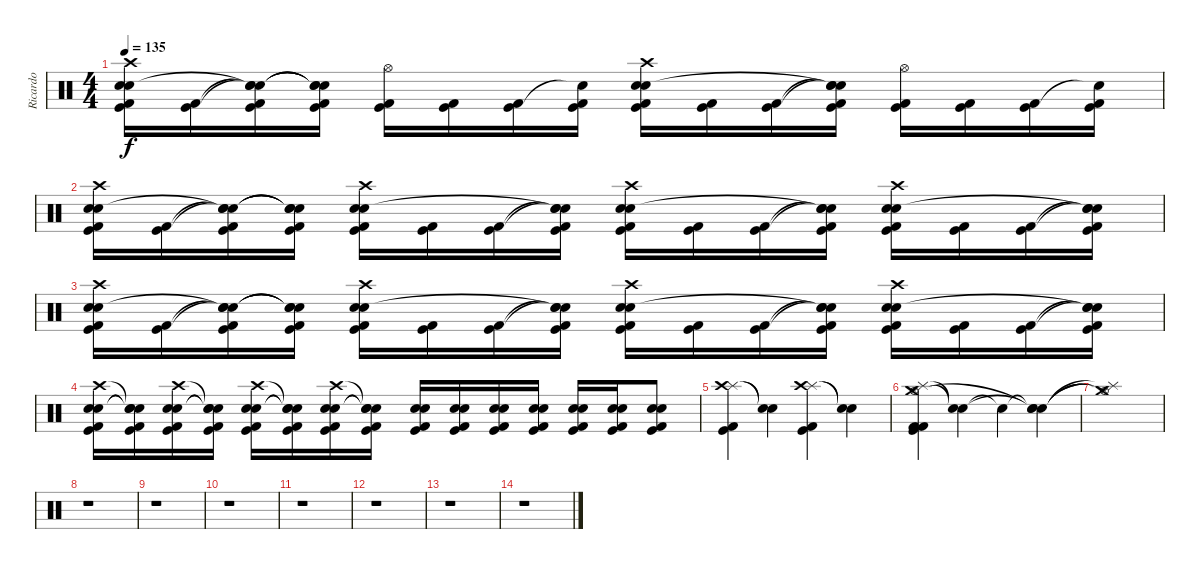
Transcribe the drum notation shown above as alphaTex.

\track ("Ricardo" "Ricardo") {instrument percussion}
\staff {score}
\articulation defaults
\ts (4 4)
\tempo 135
\clef neutral
\ks c
("Crash high (hit)" "Electric Snare (hit)" "Snare (hit) 2" "Kick (hit)" "Kick (hit) 2").16{dy f} ("Kick (hit)" "Kick (hit) 2").16 ("Snare (hit)"{t} "Snare (hit)"{t} "Snare (hit)"{t} "Kick (hit)" "Kick (hit) 2").16 ("Snare (hit)"{t} "Snare (hit)"{t} "Snare (hit)"{t} "Kick (hit)" "Kick (hit) 2").16 ("Hi-Hat (open)" "Kick (hit)" "Kick (hit) 2").16 ("Kick (hit)" "Kick (hit) 2").16 ("Kick (hit)" "Kick (hit) 2").16 ("Snare (hit)"{t} "Kick (hit)" "Kick (hit) 2").16 ("Crash high (hit)" "Electric Snare (hit)" "Snare (hit) 2" "Kick (hit)" "Kick (hit) 2").16 ("Kick (hit)" "Kick (hit) 2").16 ("Kick (hit)" "Kick (hit) 2").16 ("Snare (hit)"{t} "Snare (hit)"{t} "Snare (hit)"{t} "Kick (hit)" "Kick (hit) 2").16 ("Hi-Hat (open)" "Kick (hit)" "Kick (hit) 2").16 ("Kick (hit)" "Kick (hit) 2").16 ("Kick (hit)" "Kick (hit) 2").16 ("Snare (hit)"{t} "Kick (hit)" "Kick (hit) 2").16 |
("Crash high (hit)" "Electric Snare (hit)" "Snare (hit) 2" "Kick (hit)" "Kick (hit) 2").16 ("Kick (hit)" "Kick (hit) 2").16 ("Snare (hit)"{t} "Snare (hit)"{t} "Snare (hit)"{t} "Kick (hit)" "Kick (hit) 2").16 ("Snare (hit)"{t} "Snare (hit)"{t} "Snare (hit)"{t} "Kick (hit)" "Kick (hit) 2").16 ("Crash high (hit)" "Electric Snare (hit)" "Snare (hit) 2" "Kick (hit)" "Kick (hit) 2").16 ("Kick (hit)" "Kick (hit) 2").16 ("Kick (hit)" "Kick (hit) 2").16 ("Snare (hit)"{t} "Snare (hit)"{t} "Snare (hit)"{t} "Kick (hit)" "Kick (hit) 2").16 ("Crash high (hit)" "Electric Snare (hit)" "Snare (hit) 2" "Kick (hit)" "Kick (hit) 2").16 ("Kick (hit)" "Kick (hit) 2").16 ("Kick (hit)" "Kick (hit) 2").16 ("Snare (hit)"{t} "Snare (hit)"{t} "Snare (hit)"{t} "Kick (hit)" "Kick (hit) 2").16 ("Crash high (hit)" "Electric Snare (hit)" "Snare (hit) 2" "Kick (hit)" "Kick (hit) 2").16 ("Kick (hit)" "Kick (hit) 2").16 ("Kick (hit)" "Kick (hit) 2").16 ("Snare (hit)"{t} "Snare (hit)"{t} "Snare (hit)"{t} "Kick (hit)" "Kick (hit) 2").16 |
("Crash high (hit)" "Electric Snare (hit)" "Snare (hit) 2" "Kick (hit)" "Kick (hit) 2").16 ("Kick (hit)" "Kick (hit) 2").16 ("Snare (hit)"{t} "Snare (hit)"{t} "Snare (hit)"{t} "Kick (hit)" "Kick (hit) 2").16 ("Snare (hit)"{t} "Snare (hit)"{t} "Snare (hit)"{t} "Kick (hit)" "Kick (hit) 2").16 ("Crash high (hit)" "Electric Snare (hit)" "Snare (hit) 2" "Kick (hit)" "Kick (hit) 2").16 ("Kick (hit)" "Kick (hit) 2").16 ("Kick (hit)" "Kick (hit) 2").16 ("Snare (hit)"{t} "Snare (hit)"{t} "Snare (hit)"{t} "Kick (hit)" "Kick (hit) 2").16 ("Crash high (hit)" "Electric Snare (hit)" "Snare (hit) 2" "Kick (hit)" "Kick (hit) 2").16 ("Kick (hit)" "Kick (hit) 2").16 ("Kick (hit)" "Kick (hit) 2").16 ("Snare (hit)"{t} "Snare (hit)"{t} "Snare (hit)"{t} "Kick (hit)" "Kick (hit) 2").16 ("Crash high (hit)" "Electric Snare (hit)" "Snare (hit) 2" "Kick (hit)" "Kick (hit) 2").16 ("Kick (hit)" "Kick (hit) 2").16 ("Kick (hit)" "Kick (hit) 2").16 ("Snare (hit)"{t} "Snare (hit)"{t} "Snare (hit)"{t} "Kick (hit)" "Kick (hit) 2").16 |
("Crash high (hit)" "Electric Snare (hit)" "Snare (hit) 2" "Kick (hit) 2" "Kick (hit)").16 ("Snare (hit)"{t} "Snare (hit)"{t} "Snare (hit)"{t} "Kick (hit) 2" "Kick (hit)").16 ("Crash high (hit)" "Electric Snare (hit)" "Snare (hit) 2" "Kick (hit) 2" "Kick (hit)").16 ("Snare (hit)"{t} "Snare (hit)"{t} "Snare (hit)"{t} "Kick (hit) 2" "Kick (hit)").16 ("Crash high (hit)" "Electric Snare (hit)" "Snare (hit) 2" "Kick (hit) 2" "Kick (hit)").16 ("Snare (hit)"{t} "Snare (hit)"{t} "Snare (hit)"{t} "Kick (hit) 2" "Kick (hit)").16 ("Crash high (hit)" "Electric Snare (hit)" "Snare (hit) 2" "Kick (hit) 2" "Kick (hit)").16 ("Snare (hit)"{t} "Snare (hit)"{t} "Snare (hit)"{t} "Kick (hit) 2" "Kick (hit)").16 ("Electric Snare (hit)" "Snare (hit) 2" "Kick (hit)" "Kick (hit) 2").16 ("Electric Snare (hit)" "Snare (hit) 2" "Kick (hit)" "Kick (hit) 2").16 ("Electric Snare (hit)" "Snare (hit) 2" "Kick (hit)" "Kick (hit) 2").16 ("Electric Snare (hit)" "Snare (hit) 2" "Kick (hit)" "Kick (hit) 2").16 ("Electric Snare (hit)" "Snare (hit) 2" "Kick (hit)" "Kick (hit) 2").16 ("Electric Snare (hit)" "Snare (hit) 2" "Kick (hit)" "Kick (hit) 2").16 ("Electric Snare (hit)" "Snare (hit) 2" "Kick (hit)" "Kick (hit) 2").8 |
("Splash (hit)" "Crash high (hit)" "Kick (hit)" "Kick (hit) 2").4 ("Snare (hit)"{t} "Snare (hit)"{t}).4 ("Splash (hit)" "Crash high (hit)" "Kick (hit)" "Kick (hit) 2").4 ("Snare (hit)"{t} "Snare (hit)"{t}).4 |
("Splash (hit)" "Crash medium (hit)" "Hi-Hat (open)" "Kick (hit) 2" "Kick (hit)" "Kick (hit) 2").4 ("Snare (hit)"{t} "Snare (hit)"{t}).4 "Snare (hit)"{t}.4 ("Snare (hit)"{t} "Snare (hit)"{t} "Snare (hit)"{t}).4 |
("Splash (hit)"{t} "Crash medium (hit)"{t} "Hi-Hat (open)"{t}).1 |
r.1 |
r.1 |
r.1 |
r.1 |
r.1 |
r.1 |
r.1
